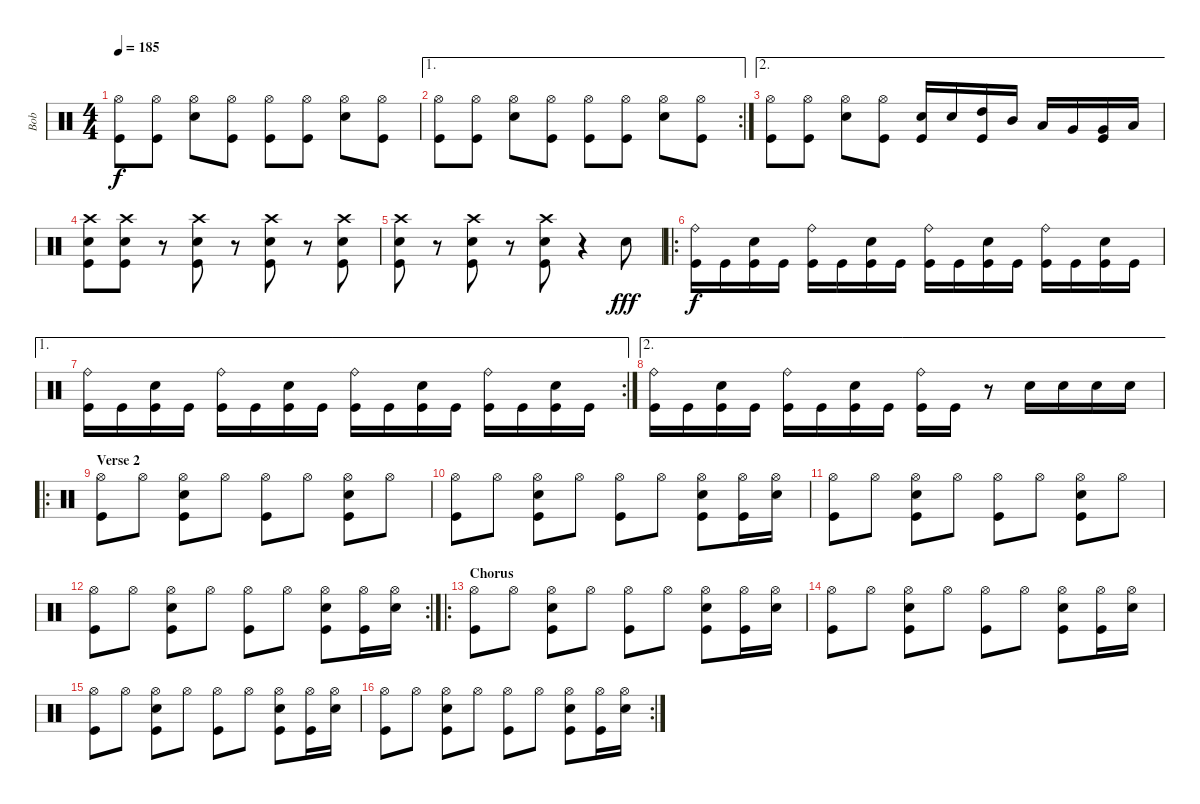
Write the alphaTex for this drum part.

\track ("Bob" "Bob") {instrument percussion}
\staff {score}
\articulation defaults
\ts (4 4)
\tempo 185
\clef neutral
\ks c
("Hi-Hat (open)" "Kick (hit)").8{dy f} ("Hi-Hat (open)" "Kick (hit)").8 ("Hi-Hat (open)" "Snare (hit) 2").8 ("Hi-Hat (open)" "Kick (hit)").8 ("Hi-Hat (open)" "Kick (hit)").8 ("Hi-Hat (open)" "Kick (hit)").8 ("Hi-Hat (open)" "Snare (hit) 2").8 ("Hi-Hat (open)" "Kick (hit)").8 |
\ae 1
\rc 2
("Hi-Hat (open)" "Kick (hit)").8 ("Hi-Hat (open)" "Kick (hit)").8 ("Hi-Hat (open)" "Snare (hit) 2").8 ("Hi-Hat (open)" "Kick (hit)").8 ("Hi-Hat (open)" "Kick (hit)").8 ("Hi-Hat (open)" "Kick (hit)").8 ("Hi-Hat (open)" "Snare (hit) 2").8 ("Hi-Hat (open)" "Kick (hit)").8 |
\ae 2
("Hi-Hat (open)" "Kick (hit)").8 ("Hi-Hat (open)" "Kick (hit)").8 ("Hi-Hat (open)" "Snare (hit) 2").8 ("Hi-Hat (open)" "Kick (hit)").8 ("Snare (hit) 2" "Kick (hit)").16 "Snare (hit) 2".16 ("High Tom (hit)" "Kick (hit)").16 "Mid Tom (hit)".16 "Low Tom (hit)".16 "Very Low Tom (hit)".16 ("Very Low Tom (hit)" "Kick (hit)").16 "Low Floor Tom (hit)".16 |
("Crash high (hit)" "Snare (hit) 2" "Kick (hit)").8 ("Crash high (hit)" "Snare (hit) 2" "Kick (hit)").8 r.8 ("Crash high (hit)" "Snare (hit) 2" "Kick (hit)").8 r.8 ("Crash high (hit)" "Snare (hit) 2" "Kick (hit)").8 r.8 ("Crash high (hit)" "Snare (hit) 2" "Kick (hit)").8 |
("Crash high (hit)" "Snare (hit) 2" "Kick (hit)").8 r.8 ("Crash high (hit)" "Snare (hit) 2" "Kick (hit)").8 r.8 ("Crash high (hit)" "Snare (hit) 2" "Kick (hit)").8 r.4 "Snare (hit) 2".8{txt " " dy fff} |
\ro
("Ride (bell)" "Kick (hit)").16{dy f} "Kick (hit)".16 ("Snare (hit) 2" "Kick (hit)").16 "Kick (hit)".16 ("Ride (bell)" "Kick (hit)").16 "Kick (hit)".16 ("Snare (hit) 2" "Kick (hit)").16 "Kick (hit)".16 ("Ride (bell)" "Kick (hit)").16 "Kick (hit)".16 ("Snare (hit) 2" "Kick (hit)").16 "Kick (hit)".16 ("Ride (bell)" "Kick (hit)").16 "Kick (hit)".16 ("Snare (hit) 2" "Kick (hit)").16 "Kick (hit)".16 |
\ae 1
\rc 2
("Ride (bell)" "Kick (hit)").16 "Kick (hit)".16 ("Snare (hit) 2" "Kick (hit)").16 "Kick (hit)".16 ("Ride (bell)" "Kick (hit)").16 "Kick (hit)".16 ("Snare (hit) 2" "Kick (hit)").16 "Kick (hit)".16 ("Ride (bell)" "Kick (hit)").16 "Kick (hit)".16 ("Snare (hit) 2" "Kick (hit)").16 "Kick (hit)".16 ("Ride (bell)" "Kick (hit)").16 "Kick (hit)".16 ("Snare (hit) 2" "Kick (hit)").16 "Kick (hit)".16 |
\ae 2
("Ride (bell)" "Kick (hit)").16 "Kick (hit)".16 ("Snare (hit) 2" "Kick (hit)").16 "Kick (hit)".16 ("Ride (bell)" "Kick (hit)").16 "Kick (hit)".16 ("Snare (hit) 2" "Kick (hit)").16 "Kick (hit)".16 ("Ride (bell)" "Kick (hit)").16 "Kick (hit)".16 r.8 "Snare (hit) 2".16 "Snare (hit) 2".16 "Snare (hit) 2".16 "Snare (hit) 2".16 |
\ro
\section ("" "Verse 2")
("Hi-Hat (open)" "Kick (hit)").8 "Hi-Hat (open)".8 ("Hi-Hat (open)" "Snare (hit) 2" "Kick (hit)").8 "Hi-Hat (open)".8 ("Hi-Hat (open)" "Kick (hit)").8 "Hi-Hat (open)".8 ("Hi-Hat (open)" "Snare (hit) 2" "Kick (hit)").8 "Hi-Hat (open)".8 |
("Hi-Hat (open)" "Kick (hit)").8 "Hi-Hat (open)".8 ("Hi-Hat (open)" "Snare (hit) 2" "Kick (hit)").8 "Hi-Hat (open)".8 ("Hi-Hat (open)" "Kick (hit)").8 "Hi-Hat (open)".8 ("Hi-Hat (open)" "Snare (hit) 2" "Kick (hit)").8 ("Hi-Hat (open)" "Kick (hit)").16 ("Hi-Hat (open)" "Snare (hit) 2").16 |
("Hi-Hat (open)" "Kick (hit)").8 "Hi-Hat (open)".8 ("Hi-Hat (open)" "Snare (hit) 2" "Kick (hit)").8 "Hi-Hat (open)".8 ("Hi-Hat (open)" "Kick (hit)").8 "Hi-Hat (open)".8 ("Hi-Hat (open)" "Snare (hit) 2" "Kick (hit)").8 "Hi-Hat (open)".8 |
\rc 2
("Hi-Hat (open)" "Kick (hit)").8 "Hi-Hat (open)".8 ("Hi-Hat (open)" "Snare (hit) 2" "Kick (hit)").8 "Hi-Hat (open)".8 ("Hi-Hat (open)" "Kick (hit)").8 "Hi-Hat (open)".8 ("Hi-Hat (open)" "Snare (hit) 2" "Kick (hit)").8 ("Hi-Hat (open)" "Kick (hit)").16 ("Hi-Hat (open)" "Snare (hit) 2").16 |
\ro
\section ("" "Chorus")
("Hi-Hat (open)" "Kick (hit)").8 "Hi-Hat (open)".8 ("Hi-Hat (open)" "Snare (hit) 2" "Kick (hit)").8 "Hi-Hat (open)".8 ("Hi-Hat (open)" "Kick (hit)").8 "Hi-Hat (open)".8 ("Hi-Hat (open)" "Snare (hit) 2" "Kick (hit)").8 ("Hi-Hat (open)" "Kick (hit)").16 ("Hi-Hat (open)" "Snare (hit) 2").16 |
("Hi-Hat (open)" "Kick (hit)").8 "Hi-Hat (open)".8 ("Hi-Hat (open)" "Snare (hit) 2" "Kick (hit)").8 "Hi-Hat (open)".8 ("Hi-Hat (open)" "Kick (hit)").8 "Hi-Hat (open)".8 ("Hi-Hat (open)" "Snare (hit) 2" "Kick (hit)").8 ("Hi-Hat (open)" "Kick (hit)").16 ("Hi-Hat (open)" "Snare (hit) 2").16 |
("Hi-Hat (open)" "Kick (hit)").8 "Hi-Hat (open)".8 ("Hi-Hat (open)" "Snare (hit) 2" "Kick (hit)").8 "Hi-Hat (open)".8 ("Hi-Hat (open)" "Kick (hit)").8 "Hi-Hat (open)".8 ("Hi-Hat (open)" "Snare (hit) 2" "Kick (hit)").8 ("Hi-Hat (open)" "Kick (hit)").16 ("Hi-Hat (open)" "Snare (hit) 2").16 |
\rc 2
("Hi-Hat (open)" "Kick (hit)").8 "Hi-Hat (open)".8 ("Hi-Hat (open)" "Snare (hit) 2" "Kick (hit)").8 "Hi-Hat (open)".8 ("Hi-Hat (open)" "Kick (hit)").8 "Hi-Hat (open)".8 ("Hi-Hat (open)" "Snare (hit) 2" "Kick (hit)").8 ("Hi-Hat (open)" "Kick (hit)").16 ("Hi-Hat (open)" "Snare (hit) 2").16
